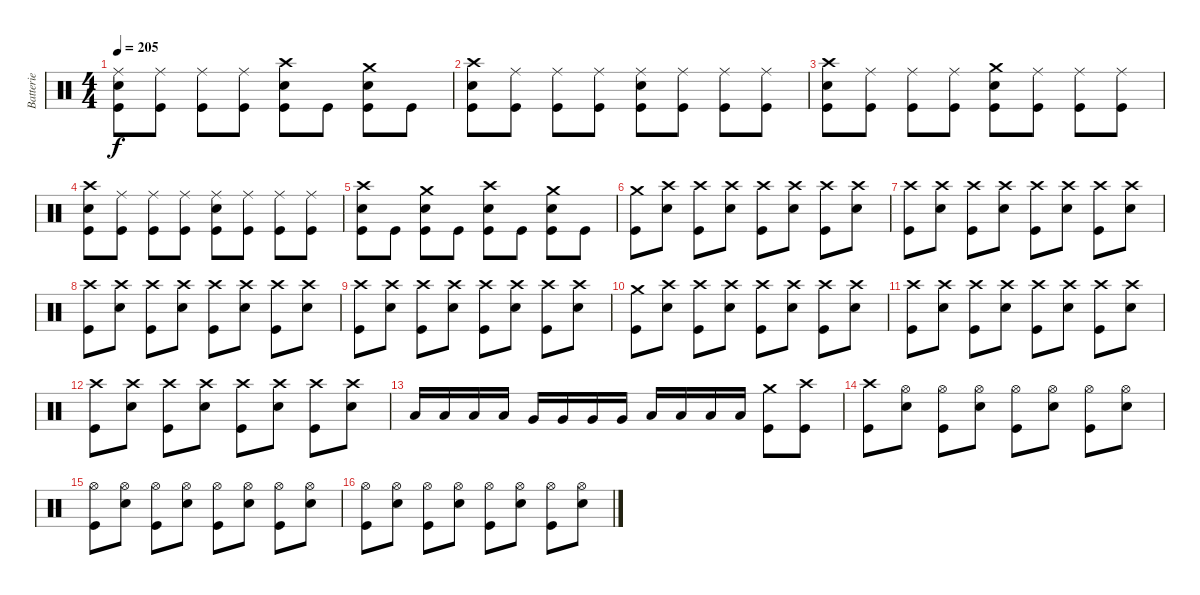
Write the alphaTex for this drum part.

\track ("Batterie" "Batterie") {instrument percussion}
\staff {score}
\articulation defaults
\ts (4 4)
\tempo 205
\clef neutral
\ks c
("Ride (middle)" "Electric Snare (hit)" "Kick (hit)").8{dy f} ("Ride (middle)" "Kick (hit)").8 ("Ride (middle)" "Kick (hit)").8 ("Ride (middle)" "Kick (hit)").8 ("Crash high (hit)" "Electric Snare (hit)" "Kick (hit)").8 "Kick (hit)".8 ("Crash medium (hit)" "Electric Snare (hit)" "Kick (hit)").8 "Kick (hit)".8 |
("Crash high (hit)" "Electric Snare (hit)" "Kick (hit)").8 ("Ride (middle)" "Kick (hit)").8 ("Ride (middle)" "Kick (hit)").8 ("Ride (middle)" "Kick (hit)").8 ("Ride (middle)" "Electric Snare (hit)" "Kick (hit)").8 ("Ride (middle)" "Kick (hit)").8 ("Ride (middle)" "Kick (hit)").8 ("Ride (middle)" "Kick (hit)").8 |
("Crash high (hit)" "Electric Snare (hit)" "Kick (hit)").8 ("Ride (middle)" "Kick (hit)").8 ("Ride (middle)" "Kick (hit)").8 ("Ride (middle)" "Kick (hit)").8 ("Crash medium (hit)" "Electric Snare (hit)" "Kick (hit)").8 ("Ride (middle)" "Kick (hit)").8 ("Ride (middle)" "Kick (hit)").8 ("Ride (middle)" "Kick (hit)").8 |
("Crash high (hit)" "Electric Snare (hit)" "Kick (hit)").8 ("Ride (middle)" "Kick (hit)").8 ("Ride (middle)" "Kick (hit)").8 ("Ride (middle)" "Kick (hit)").8 ("Ride (middle)" "Electric Snare (hit)" "Kick (hit)").8 ("Ride (middle)" "Kick (hit)").8 ("Ride (middle)" "Kick (hit)").8 ("Ride (middle)" "Kick (hit)").8 |
("Crash high (hit)" "Electric Snare (hit)" "Kick (hit)").8 "Kick (hit)".8 ("Crash medium (hit)" "Electric Snare (hit)" "Kick (hit)").8 "Kick (hit)".8 ("Crash high (hit)" "Electric Snare (hit)" "Kick (hit)").8 "Kick (hit)".8 ("Crash medium (hit)" "Electric Snare (hit)" "Kick (hit)").8 "Kick (hit)".8 |
("Crash medium (hit)" "Kick (hit)").8 ("Crash high (hit)" "Electric Snare (hit)").8 ("Crash high (hit)" "Kick (hit)").8 ("Crash high (hit)" "Electric Snare (hit)").8 ("Crash high (hit)" "Kick (hit)").8 ("Crash high (hit)" "Electric Snare (hit)").8 ("Crash high (hit)" "Kick (hit)").8 ("Crash high (hit)" "Electric Snare (hit)").8 |
("Crash high (hit)" "Kick (hit)").8 ("Crash high (hit)" "Electric Snare (hit)").8 ("Crash high (hit)" "Kick (hit)").8 ("Crash high (hit)" "Electric Snare (hit)").8 ("Crash high (hit)" "Kick (hit)").8 ("Crash high (hit)" "Electric Snare (hit)").8 ("Crash high (hit)" "Kick (hit)").8 ("Crash high (hit)" "Electric Snare (hit)").8 |
("Crash high (hit)" "Kick (hit)").8 ("Crash high (hit)" "Electric Snare (hit)").8 ("Crash high (hit)" "Kick (hit)").8 ("Crash high (hit)" "Electric Snare (hit)").8 ("Crash high (hit)" "Kick (hit)").8 ("Crash high (hit)" "Electric Snare (hit)").8 ("Crash high (hit)" "Kick (hit)").8 ("Crash high (hit)" "Electric Snare (hit)").8 |
("Crash high (hit)" "Kick (hit)").8 ("Crash high (hit)" "Electric Snare (hit)").8 ("Crash high (hit)" "Kick (hit)").8 ("Crash high (hit)" "Electric Snare (hit)").8 ("Crash high (hit)" "Kick (hit)").8 ("Crash high (hit)" "Electric Snare (hit)").8 ("Crash high (hit)" "Kick (hit)").8 ("Crash high (hit)" "Electric Snare (hit)").8 |
("Crash medium (hit)" "Kick (hit)").8 ("Crash high (hit)" "Electric Snare (hit)").8 ("Crash high (hit)" "Kick (hit)").8 ("Crash high (hit)" "Electric Snare (hit)").8 ("Crash high (hit)" "Kick (hit)").8 ("Crash high (hit)" "Electric Snare (hit)").8 ("Crash high (hit)" "Kick (hit)").8 ("Crash high (hit)" "Electric Snare (hit)").8 |
("Crash high (hit)" "Kick (hit)").8 ("Crash high (hit)" "Electric Snare (hit)").8 ("Crash high (hit)" "Kick (hit)").8 ("Crash high (hit)" "Electric Snare (hit)").8 ("Crash high (hit)" "Kick (hit)").8 ("Crash high (hit)" "Electric Snare (hit)").8 ("Crash high (hit)" "Kick (hit)").8 ("Crash high (hit)" "Electric Snare (hit)").8 |
("Crash high (hit)" "Kick (hit)").8 ("Crash high (hit)" "Electric Snare (hit)").8 ("Crash high (hit)" "Kick (hit)").8 ("Crash high (hit)" "Electric Snare (hit)").8 ("Crash high (hit)" "Kick (hit)").8 ("Crash high (hit)" "Electric Snare (hit)").8 ("Crash high (hit)" "Kick (hit)").8 ("Crash high (hit)" "Electric Snare (hit)").8 |
"Low Tom (hit)".16 "Low Tom (hit)".16 "Low Tom (hit)".16 "Low Tom (hit)".16 "Very Low Tom (hit)".16 "Very Low Tom (hit)".16 "Very Low Tom (hit)".16 "Very Low Tom (hit)".16 "Low Floor Tom (hit)".16 "Low Floor Tom (hit)".16 "Low Floor Tom (hit)".16 "Low Floor Tom (hit)".16 ("Crash medium (hit)" "Kick (hit)").8 ("Crash high (hit)" "Kick (hit)").8 |
("Crash high (hit)" "Kick (hit)").8 ("Hi-Hat (open)" "Electric Snare (hit)").8 ("Hi-Hat (open)" "Kick (hit)").8 ("Hi-Hat (open)" "Electric Snare (hit)").8 ("Hi-Hat (open)" "Kick (hit)").8 ("Hi-Hat (open)" "Electric Snare (hit)").8 ("Hi-Hat (open)" "Kick (hit)").8 ("Hi-Hat (open)" "Electric Snare (hit)").8 |
("Hi-Hat (open)" "Kick (hit)").8 ("Hi-Hat (open)" "Electric Snare (hit)").8 ("Hi-Hat (open)" "Kick (hit)").8 ("Hi-Hat (open)" "Electric Snare (hit)").8 ("Hi-Hat (open)" "Kick (hit)").8 ("Hi-Hat (open)" "Electric Snare (hit)").8 ("Hi-Hat (open)" "Kick (hit)").8 ("Hi-Hat (open)" "Electric Snare (hit)").8 |
("Hi-Hat (open)" "Kick (hit)").8 ("Hi-Hat (open)" "Electric Snare (hit)").8 ("Hi-Hat (open)" "Kick (hit)").8 ("Hi-Hat (open)" "Electric Snare (hit)").8 ("Hi-Hat (open)" "Kick (hit)").8 ("Hi-Hat (open)" "Electric Snare (hit)").8 ("Hi-Hat (open)" "Kick (hit)").8 ("Hi-Hat (open)" "Electric Snare (hit)").8
